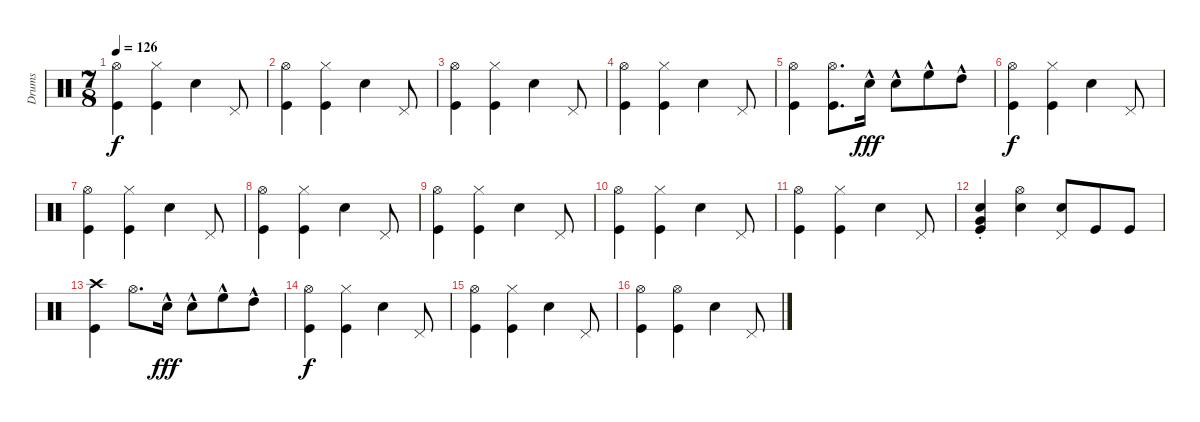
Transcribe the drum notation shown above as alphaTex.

\track ("Drums" "Drums") {instrument percussion}
\staff {score}
\articulation defaults
\ts (7 8)
\tempo 126
\clef neutral
\ks c
("Hi-Hat (open)" "Kick (hit)").4{dy f} ("Hi-Hat (closed)" "Kick (hit)").4 "Snare (hit) 2".4 "Pedal Hi-Hat (hit)".8 |
("Hi-Hat (open)" "Kick (hit)").4 ("Hi-Hat (closed)" "Kick (hit)").4 "Snare (hit) 2".4 "Pedal Hi-Hat (hit)".8 |
("Hi-Hat (open)" "Kick (hit)").4 ("Hi-Hat (closed)" "Kick (hit)").4 "Snare (hit) 2".4 "Pedal Hi-Hat (hit)".8 |
("Hi-Hat (open)" "Kick (hit)").4 ("Hi-Hat (closed)" "Kick (hit)").4 "Snare (hit) 2".4 "Pedal Hi-Hat (hit)".8 |
("Hi-Hat (open)" "Kick (hit)").4 ("Hi-Hat (open)" "Kick (hit)").8{d} "Snare (hit) 2"{hac}.16{dy fff} "Snare (hit) 2"{hac}.8 "High Floor Tom (hit)"{hac}.8 "High Tom (hit)"{hac}.8 |
("Hi-Hat (open)" "Kick (hit)").4{dy f} ("Hi-Hat (closed)" "Kick (hit)").4 "Snare (hit) 2".4 "Pedal Hi-Hat (hit)".8 |
("Hi-Hat (open)" "Kick (hit)").4 ("Hi-Hat (closed)" "Kick (hit)").4 "Snare (hit) 2".4 "Pedal Hi-Hat (hit)".8 |
("Hi-Hat (open)" "Kick (hit)").4 ("Hi-Hat (closed)" "Kick (hit)").4 "Snare (hit) 2".4 "Pedal Hi-Hat (hit)".8 |
("Hi-Hat (open)" "Kick (hit)").4 ("Hi-Hat (closed)" "Kick (hit)").4 "Snare (hit) 2".4 "Pedal Hi-Hat (hit)".8 |
("Hi-Hat (open)" "Kick (hit)").4 ("Hi-Hat (closed)" "Kick (hit)").4 "Snare (hit) 2".4 "Pedal Hi-Hat (hit)".8 |
("Hi-Hat (open)" "Kick (hit)").4 ("Hi-Hat (closed)" "Kick (hit)").4 "Snare (hit) 2".4 "Pedal Hi-Hat (hit)".8 |
("Very Low Tom (hit)"{st} "Snare (hit) 2"{st} "Kick (hit)"{st}).4 ("Hi-Hat (open)" "Snare (hit) 2").4 ("Pedal Hi-Hat (hit)" "Snare (hit) 2").8 "Kick (hit)".8 "Kick (hit)".8 |
("Crash high (hit)" "Kick (hit)").4 "Hi-Hat (open)".8{d} "Snare (hit) 2"{hac}.16{dy fff} "Snare (hit) 2"{hac}.8 "High Floor Tom (hit)"{hac}.8 "High Tom (hit)"{hac}.8 |
("Hi-Hat (open)" "Kick (hit)").4{dy f} ("Hi-Hat (closed)" "Kick (hit)").4 "Snare (hit) 2".4 "Pedal Hi-Hat (hit)".8 |
("Hi-Hat (open)" "Kick (hit)").4 ("Hi-Hat (closed)" "Kick (hit)").4 "Snare (hit) 2".4 "Pedal Hi-Hat (hit)".8 |
("Hi-Hat (open)" "Kick (hit)").4 ("Hi-Hat (open)" "Kick (hit)").4 "Snare (hit) 2".4 "Pedal Hi-Hat (hit)".8
